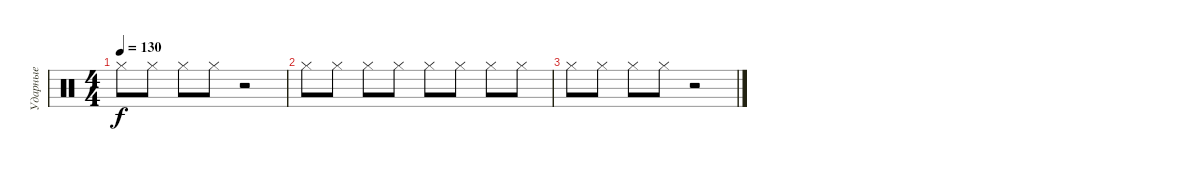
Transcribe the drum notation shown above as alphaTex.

\track ("Ударные" "Ударные") {instrument percussion}
\staff {score}
\articulation defaults
\ts (4 4)
\tempo 130
\clef neutral
\ks c "Hi-Hat (closed)".8{dy f} "Hi-Hat (closed)".8 "Hi-Hat (closed)".8 "Hi-Hat (closed)".8
r.2 |
"Hi-Hat (closed)".8 "Hi-Hat (closed)".8 "Hi-Hat (closed)".8 "Hi-Hat (closed)".8 "Hi-Hat (closed)".8 "Hi-Hat (closed)".8 "Hi-Hat (closed)".8 "Hi-Hat (closed)".8 |
"Hi-Hat (closed)".8 "Hi-Hat (closed)".8 "Hi-Hat (closed)".8 "Hi-Hat (closed)".8 r.2
